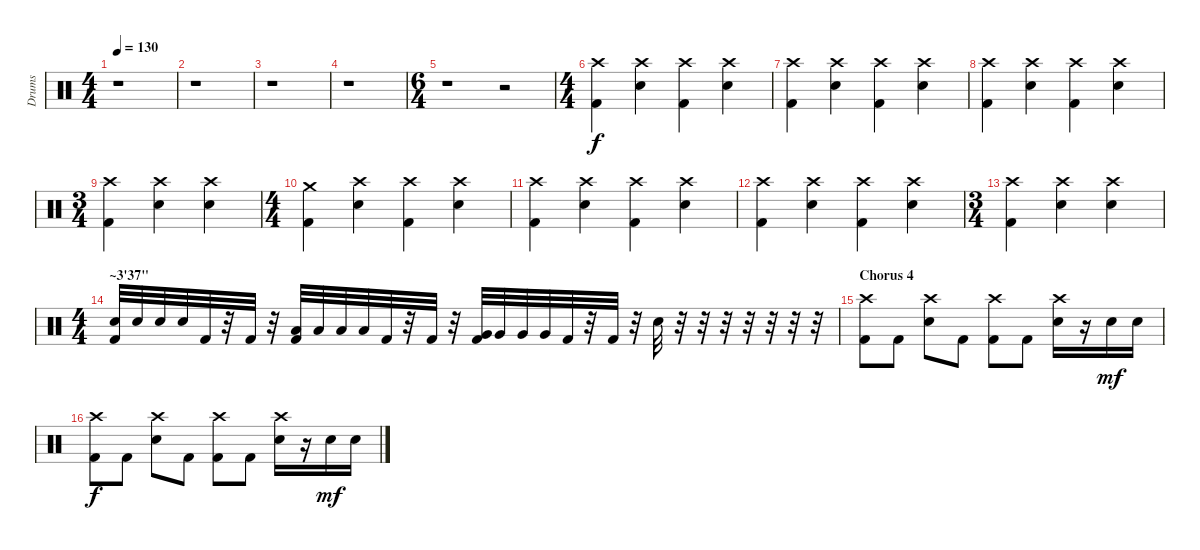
\track ("Drums" "Drums") {instrument percussion}
\staff {score}
\articulation defaults
\ts (4 4)
\tempo 130
\clef neutral
\ks c
r.1{dy f} |
r.1 |
r.1 |
r.1 |
\ts (6 4)
r.1 r.2 |
\ts (4 4)
("Crash high (hit)" "Kick (hit) 2").4 ("Electric Snare (hit)" "Crash high (hit)").4 ("Crash high (hit)" "Kick (hit) 2").4 ("Electric Snare (hit)" "Crash high (hit)").4 |
("Crash high (hit)" "Kick (hit) 2").4 ("Electric Snare (hit)" "Crash high (hit)").4 ("Crash high (hit)" "Kick (hit) 2").4 ("Electric Snare (hit)" "Crash high (hit)").4 |
("Crash high (hit)" "Kick (hit) 2").4 ("Electric Snare (hit)" "Crash high (hit)").4 ("Crash high (hit)" "Kick (hit) 2").4 ("Electric Snare (hit)" "Crash high (hit)").4 |
\ts (3 4)
("Crash high (hit)" "Kick (hit) 2").4 ("Electric Snare (hit)" "Crash high (hit)").4 ("Crash high (hit)" "Electric Snare (hit)").4 |
\ts (4 4)
("Kick (hit) 2" "Crash medium (hit)").4 ("Electric Snare (hit)" "Crash high (hit)").4 ("Crash high (hit)" "Kick (hit) 2").4 ("Electric Snare (hit)" "Crash high (hit)").4 |
("Crash high (hit)" "Kick (hit) 2").4 ("Electric Snare (hit)" "Crash high (hit)").4 ("Crash high (hit)" "Kick (hit) 2").4 ("Electric Snare (hit)" "Crash high (hit)").4 |
("Crash high (hit)" "Kick (hit) 2").4 ("Electric Snare (hit)" "Crash high (hit)").4 ("Crash high (hit)" "Kick (hit) 2").4 ("Electric Snare (hit)" "Crash high (hit)").4 |
\ts (3 4)
("Crash high (hit)" "Kick (hit) 2").4 ("Electric Snare (hit)" "Crash high (hit)").4 ("Crash high (hit)" "Electric Snare (hit)").4 |
\ts (4 4)
\section ("" "~3'37\"")
("Electric Snare (hit)" "Kick (hit) 2").32 "Electric Snare (hit)".32 "Electric Snare (hit)".32 "Electric Snare (hit)".32 "Kick (hit) 2".32 r.32 "Kick (hit) 2".32 r.32 ("Low Tom (hit)" "Kick (hit) 2").32 "Low Tom (hit)".32 "Low Tom (hit)".32 "Low Tom (hit)".32 "Kick (hit) 2".32 r.32 "Kick (hit) 2".32 r.32 ("Very Low Tom (hit)" "Kick (hit) 2").32 "Very Low Tom (hit)".32 "Very Low Tom (hit)".32 "Very Low Tom (hit)".32 "Kick (hit) 2".32 r.32 "Kick (hit) 2".32 r.32 "Electric Snare (hit)".32 r.32 r.32 r.32 r.32 r.32 r.32 r.32 |
\section ("" "Chorus 4")
("Crash high (hit)" "Kick (hit) 2").8 "Kick (hit) 2".8 ("Electric Snare (hit)" "Crash high (hit)").8 "Kick (hit) 2".8 ("Crash high (hit)" "Kick (hit) 2").8 "Kick (hit) 2".8 ("Electric Snare (hit)" "Crash high (hit)").16 r.16 "Electric Snare (hit)".16{dy mf} "Electric Snare (hit)".16 |
("Crash high (hit)" "Kick (hit) 2").8{dy f} "Kick (hit) 2".8 ("Electric Snare (hit)" "Crash high (hit)").8 "Kick (hit) 2".8 ("Crash high (hit)" "Kick (hit) 2").8 "Kick (hit) 2".8 ("Electric Snare (hit)" "Crash high (hit)").16 r.16 "Electric Snare (hit)".16{dy mf} "Electric Snare (hit)".16
